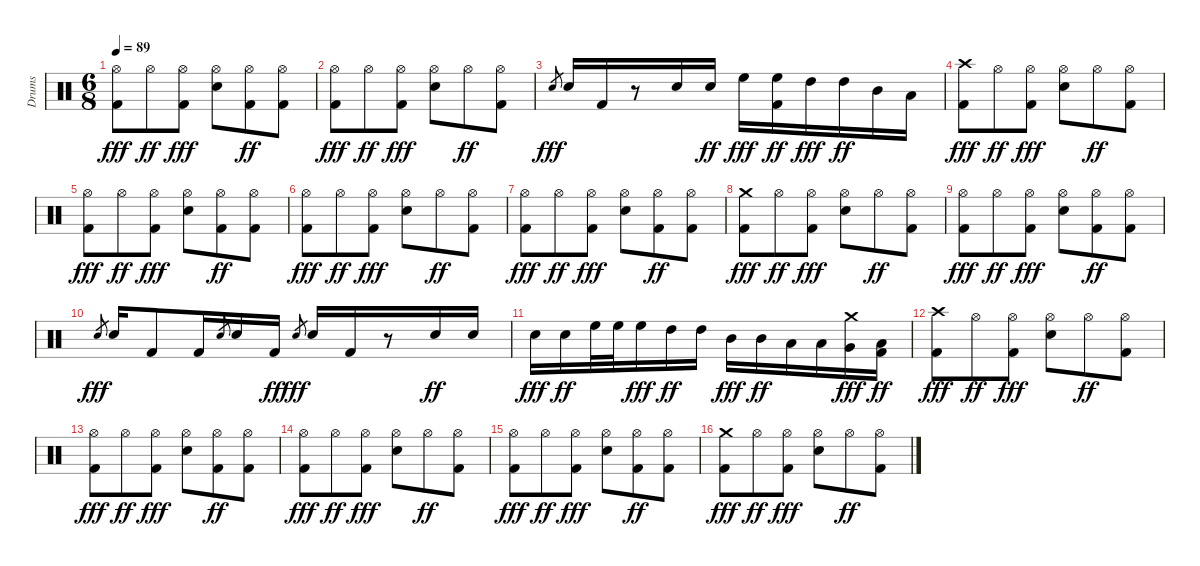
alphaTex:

\track ("Drums" "Drums") {instrument percussion}
\staff {score}
\articulation defaults
\ts (6 8)
\tempo 89
\clef neutral
\ks c
("Hi-Hat (open)" "Kick (hit) 2").8{dy fff} "Hi-Hat (open)".8{dy ff} ("Hi-Hat (open)" "Kick (hit) 2").8{dy fff} ("Hi-Hat (open)" "Snare (hit) 2").8 ("Hi-Hat (open)" "Kick (hit) 2").8{dy ff} ("Hi-Hat (open)" "Kick (hit) 2").8 |
("Hi-Hat (open)" "Kick (hit) 2").8{dy fff} "Hi-Hat (open)".8{dy ff} ("Hi-Hat (open)" "Kick (hit) 2").8{dy fff} ("Hi-Hat (open)" "Snare (hit) 2").8 "Hi-Hat (open)".8{dy ff} ("Hi-Hat (open)" "Kick (hit) 2").8 |
"Snare (hit) 2".8{gr dy fff} "Snare (hit) 2".16 "Kick (hit) 2".16 r.8 "Snare (hit) 2".16 "Snare (hit) 2".16{dy ff} "High Floor Tom (hit)".16{dy fff} ("High Floor Tom (hit)" "Kick (hit) 2").16{dy ff} "High Tom (hit)".16{dy fff} "High Tom (hit)".16{dy ff} "Mid Tom (hit)".16 "Low Tom (hit)".16 |
("Kick (hit) 2" "Crash high (hit)").8{dy fff} "Hi-Hat (open)".8{dy ff} ("Hi-Hat (open)" "Kick (hit) 2").8{dy fff} ("Hi-Hat (open)" "Snare (hit) 2").8 "Hi-Hat (open)".8{dy ff} ("Hi-Hat (open)" "Kick (hit) 2").8 |
("Hi-Hat (open)" "Kick (hit) 2").8{dy fff} "Hi-Hat (open)".8{dy ff} ("Hi-Hat (open)" "Kick (hit) 2").8{dy fff} ("Hi-Hat (open)" "Snare (hit) 2").8 ("Hi-Hat (open)" "Kick (hit) 2").8{dy ff} ("Hi-Hat (open)" "Kick (hit) 2").8 |
("Hi-Hat (open)" "Kick (hit) 2").8{dy fff} "Hi-Hat (open)".8{dy ff} ("Hi-Hat (open)" "Kick (hit) 2").8{dy fff} ("Hi-Hat (open)" "Snare (hit) 2").8 "Hi-Hat (open)".8{dy ff} ("Hi-Hat (open)" "Kick (hit) 2").8 |
("Hi-Hat (open)" "Kick (hit) 2").8{dy fff} "Hi-Hat (open)".8{dy ff} ("Hi-Hat (open)" "Kick (hit) 2").8{dy fff} ("Hi-Hat (open)" "Snare (hit) 2").8 ("Hi-Hat (open)" "Kick (hit) 2").8{dy ff} ("Hi-Hat (open)" "Kick (hit) 2").8 |
("Kick (hit) 2" "Crash medium (hit)").8{dy fff} "Hi-Hat (open)".8{dy ff} ("Hi-Hat (open)" "Kick (hit) 2").8{dy fff} ("Hi-Hat (open)" "Snare (hit) 2").8 "Hi-Hat (open)".8{dy ff} ("Hi-Hat (open)" "Kick (hit) 2").8 |
("Hi-Hat (open)" "Kick (hit) 2").8{dy fff} "Hi-Hat (open)".8{dy ff} ("Hi-Hat (open)" "Kick (hit) 2").8{dy fff} ("Hi-Hat (open)" "Snare (hit) 2").8 ("Hi-Hat (open)" "Kick (hit) 2").8{dy ff} ("Hi-Hat (open)" "Kick (hit) 2").8 |
"Snare (hit) 2".8{gr dy fff} "Snare (hit) 2".16 "Kick (hit) 2".8 "Kick (hit) 2".16 "Electric Snare (hit)".8{gr} "Electric Snare (hit)".16 "Kick (hit) 2".16{dy ff} "Electric Snare (hit)".8{gr dy fff} "Electric Snare (hit)".16 "Kick (hit) 2".16 r.8 "Electric Snare (hit)".16{dy ff} "Electric Snare (hit)".16 |
"Snare (hit) 2".16{dy fff} "Electric Snare (hit)".16{dy ff} "High Floor Tom (hit)".32 "High Floor Tom (hit)".32 "High Floor Tom (hit)".16{dy fff} "High Tom (hit)".16{dy ff} "High Tom (hit)".16 "Mid Tom (hit)".16{dy fff} "Mid Tom (hit)".16{dy ff} "Low Tom (hit)".16 "Low Tom (hit)".16 ("Very Low Tom (hit)" "Crash medium (hit)").16{dy fff} ("Kick (hit) 2" "Low Floor Tom (hit)").16{dy ff} |
("Kick (hit) 2" "Crash high (hit)").8{dy fff} "Hi-Hat (open)".8{dy ff} ("Hi-Hat (open)" "Kick (hit) 2").8{dy fff} ("Hi-Hat (open)" "Snare (hit) 2").8 "Hi-Hat (open)".8{dy ff} ("Hi-Hat (open)" "Kick (hit) 2").8 |
("Hi-Hat (open)" "Kick (hit) 2").8{dy fff} "Hi-Hat (open)".8{dy ff} ("Hi-Hat (open)" "Kick (hit) 2").8{dy fff} ("Hi-Hat (open)" "Snare (hit) 2").8 ("Hi-Hat (open)" "Kick (hit) 2").8{dy ff} ("Hi-Hat (open)" "Kick (hit) 2").8 |
("Hi-Hat (open)" "Kick (hit) 2").8{dy fff} "Hi-Hat (open)".8{dy ff} ("Hi-Hat (open)" "Kick (hit) 2").8{dy fff} ("Hi-Hat (open)" "Snare (hit) 2").8 "Hi-Hat (open)".8{dy ff} ("Hi-Hat (open)" "Kick (hit) 2").8 |
("Hi-Hat (open)" "Kick (hit) 2").8{dy fff} "Hi-Hat (open)".8{dy ff} ("Hi-Hat (open)" "Kick (hit) 2").8{dy fff} ("Hi-Hat (open)" "Snare (hit) 2").8 ("Hi-Hat (open)" "Kick (hit) 2").8{dy ff} ("Hi-Hat (open)" "Kick (hit) 2").8 |
("Kick (hit) 2" "Crash medium (hit)").8{dy fff} "Hi-Hat (open)".8{dy ff} ("Hi-Hat (open)" "Kick (hit) 2").8{dy fff} ("Hi-Hat (open)" "Snare (hit) 2").8 "Hi-Hat (open)".8{dy ff} ("Hi-Hat (open)" "Kick (hit) 2").8
